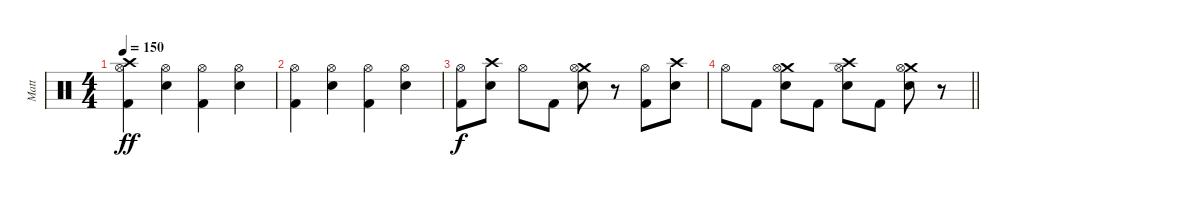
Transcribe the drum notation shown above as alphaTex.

\track ("Matt" "Matt") {instrument percussion}
\staff {score}
\articulation defaults
\ts (4 4)
\tempo 150
\clef neutral
\ks c
("Hi-Hat (open)" "Kick (hit) 2" "Crash high (hit)").4{dy ff} ("Hi-Hat (open)" "Snare (hit) 2").4 ("Hi-Hat (open)" "Kick (hit) 2").4 ("Hi-Hat (open)" "Snare (hit) 2").4 |
("Hi-Hat (open)" "Kick (hit) 2").4 ("Hi-Hat (open)" "Snare (hit) 2").4 ("Hi-Hat (open)" "Kick (hit) 2").4 ("Hi-Hat (open)" "Snare (hit) 2").4 |
("Kick (hit) 2" "Hi-Hat (open)").8{dy f} ("Crash high (hit)" "Snare (hit) 2").8 "Hi-Hat (open)".8 "Kick (hit) 2".8 ("Crash medium (hit)" "Snare (hit) 2" "Hi-Hat (open)").8 r.8 ("Kick (hit) 2" "Hi-Hat (open)").8 ("Crash high (hit)" "Snare (hit) 2").8 |
\barLineRight lightlight "Hi-Hat (open)".8 "Kick (hit) 2".8
("Crash medium (hit)" "Snare (hit) 2" "Hi-Hat (open)").8 "Kick (hit) 2".8 ("Crash high (hit)" "Snare (hit) 2" "Hi-Hat (open)").8 "Kick (hit) 2".8 ("Crash medium (hit)" "Snare (hit) 2" "Hi-Hat (open)").8 r.8
